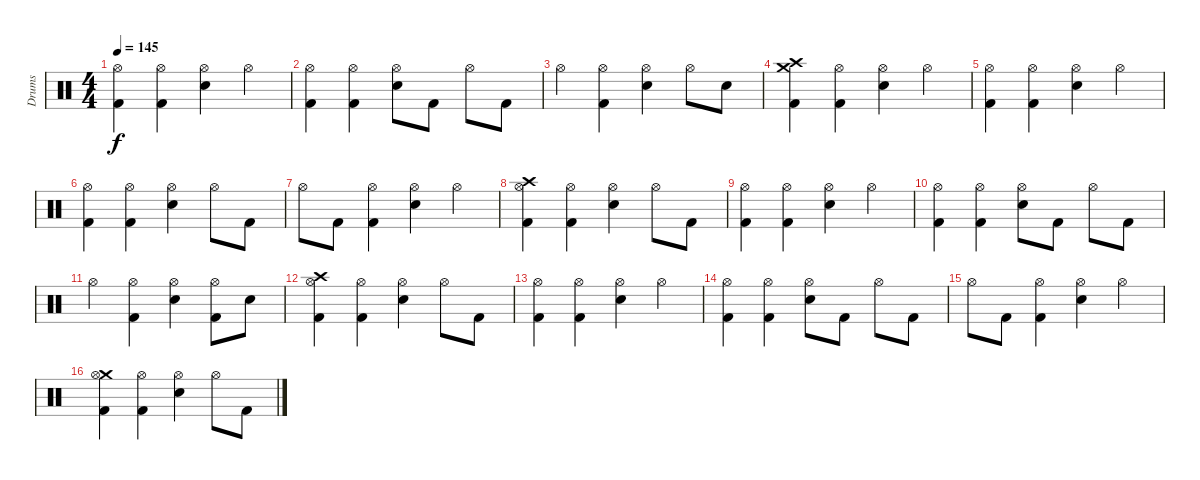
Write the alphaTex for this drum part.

\track ("Drums" "Drums") {instrument percussion}
\staff {score}
\articulation defaults
\ts (4 4)
\tempo 145
\clef neutral
\ks c
("Hi-Hat (open)" "Kick (hit) 2").4{dy f} ("Hi-Hat (open)" "Kick (hit) 2").4 ("Hi-Hat (open)" "Electric Snare (hit)").4 "Hi-Hat (open)".4 |
("Hi-Hat (open)" "Kick (hit) 2").4 ("Hi-Hat (open)" "Kick (hit) 2").4 ("Hi-Hat (open)" "Electric Snare (hit)").8 "Kick (hit) 2".8 "Hi-Hat (open)".8 "Kick (hit) 2".8 |
"Hi-Hat (open)".4 ("Hi-Hat (open)" "Kick (hit) 2").4 ("Hi-Hat (open)" "Electric Snare (hit)").4 "Hi-Hat (open)".8 "Electric Snare (hit)".8 |
("Crash medium (hit)" "Crash high (hit)" "Kick (hit) 2").4 ("Hi-Hat (open)" "Kick (hit) 2").4 ("Hi-Hat (open)" "Electric Snare (hit)").4 "Hi-Hat (open)".4 |
("Hi-Hat (open)" "Kick (hit) 2").4 ("Hi-Hat (open)" "Kick (hit) 2").4 ("Hi-Hat (open)" "Electric Snare (hit)").4 "Hi-Hat (open)".4 |
("Hi-Hat (open)" "Kick (hit) 2").4 ("Hi-Hat (open)" "Kick (hit) 2").4 ("Hi-Hat (open)" "Electric Snare (hit)").4 "Hi-Hat (open)".8 "Kick (hit) 2".8 |
"Hi-Hat (open)".8 "Kick (hit) 2".8 ("Hi-Hat (open)" "Kick (hit) 2").4 ("Hi-Hat (open)" "Electric Snare (hit)").4 "Hi-Hat (open)".4 |
("Crash high (hit)" "Hi-Hat (open)" "Kick (hit) 2").4 ("Hi-Hat (open)" "Kick (hit) 2").4 ("Hi-Hat (open)" "Electric Snare (hit)").4 "Hi-Hat (open)".8 "Kick (hit) 2".8 |
("Hi-Hat (open)" "Kick (hit) 2").4 ("Hi-Hat (open)" "Kick (hit) 2").4 ("Hi-Hat (open)" "Electric Snare (hit)").4 "Hi-Hat (open)".4 |
("Hi-Hat (open)" "Kick (hit) 2").4 ("Hi-Hat (open)" "Kick (hit) 2").4 ("Hi-Hat (open)" "Electric Snare (hit)").8 "Kick (hit) 2".8 "Hi-Hat (open)".8 "Kick (hit) 2".8 |
"Hi-Hat (open)".4 ("Hi-Hat (open)" "Kick (hit) 2").4 ("Hi-Hat (open)" "Electric Snare (hit)").4 ("Hi-Hat (open)" "Kick (hit) 2").8 "Electric Snare (hit)".8 |
("Crash high (hit)" "Hi-Hat (open)" "Kick (hit) 2").4 ("Hi-Hat (open)" "Kick (hit) 2").4 ("Hi-Hat (open)" "Electric Snare (hit)").4 "Hi-Hat (open)".8 "Kick (hit) 2".8 |
("Hi-Hat (open)" "Kick (hit) 2").4 ("Hi-Hat (open)" "Kick (hit) 2").4 ("Hi-Hat (open)" "Electric Snare (hit)").4 "Hi-Hat (open)".4 |
("Hi-Hat (open)" "Kick (hit) 2").4 ("Hi-Hat (open)" "Kick (hit) 2").4 ("Hi-Hat (open)" "Electric Snare (hit)").8 "Kick (hit) 2".8 "Hi-Hat (open)".8 "Kick (hit) 2".8 |
"Hi-Hat (open)".8 "Kick (hit) 2".8 ("Hi-Hat (open)" "Kick (hit) 2").4 ("Hi-Hat (open)" "Electric Snare (hit)").4 "Hi-Hat (open)".4 |
("Crash medium (hit)" "Hi-Hat (open)" "Kick (hit) 2").4 ("Hi-Hat (open)" "Kick (hit) 2").4 ("Hi-Hat (open)" "Electric Snare (hit)").4 "Hi-Hat (open)".8 "Kick (hit) 2".8
